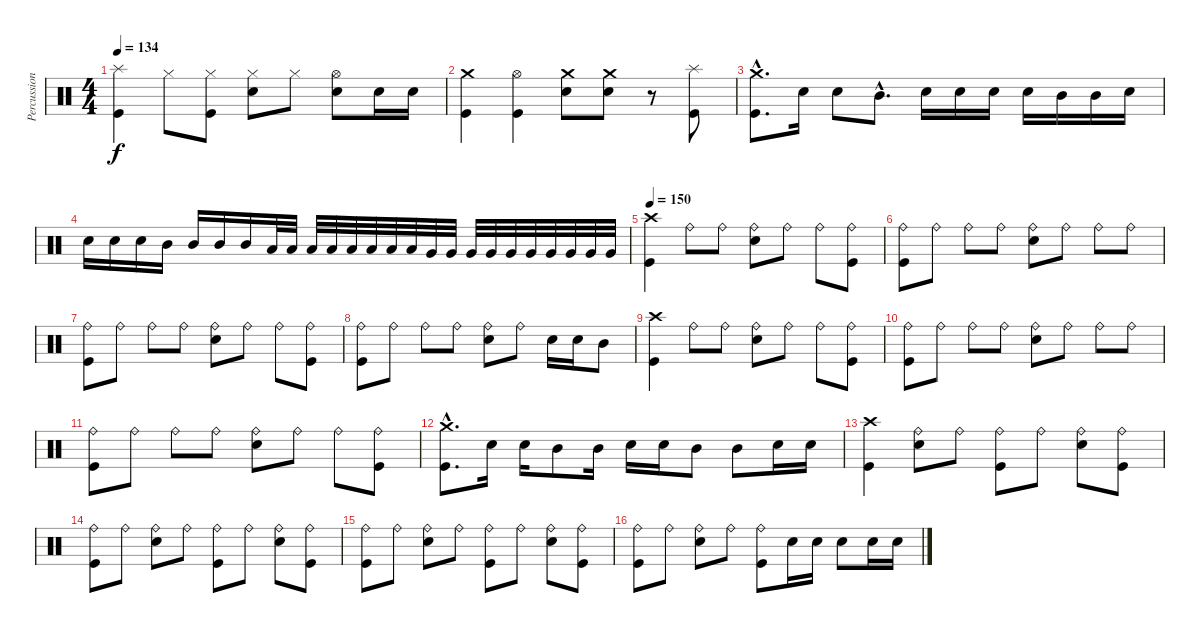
\track ("Percussions" "Percussion") {instrument percussion}
\staff {score}
\articulation defaults
\ts (4 4)
\tempo 134
\clef neutral
\ks c
("Kick (hit)" "Splash (hit)").4{dy f} "Hi-Hat (closed)".8 ("Kick (hit)" "Hi-Hat (closed)").8 ("Electric Snare (hit)" "Hi-Hat (closed)").8 "Hi-Hat (closed)".8 ("Electric Snare (hit)" "Hi-Hat (open)").8 "Electric Snare (hit)".16 "Electric Snare (hit)".16 |
("Kick (hit)" "Crash medium (hit)").4 ("Kick (hit)" "Hi-Hat (open)").4 ("Electric Snare (hit)" "Crash medium (hit)").8 ("Electric Snare (hit)" "Crash medium (hit)").8 r.8 ("Kick (hit)" "Splash (hit)").8 |
("Kick (hit)"{hac} "Crash medium (hit)"{hac}).8{d} "Electric Snare (hit)".16 "Electric Snare (hit)".8 "Mid Tom (hit)"{hac}.8{d} "Electric Snare (hit)".16 "Electric Snare (hit)".16 "Electric Snare (hit)".16 "Electric Snare (hit)".16 "Mid Tom (hit)".16 "Mid Tom (hit)".16 "Electric Snare (hit)".16 |
"Electric Snare (hit)".16 "Electric Snare (hit)".16 "Electric Snare (hit)".16 "Mid Tom (hit)".16 "Mid Tom (hit)".16 "Mid Tom (hit)".16 "Mid Tom (hit)".16 "Low Tom (hit)".32 "Low Tom (hit)".32 "Low Tom (hit)".32 "Low Tom (hit)".32 "Low Tom (hit)".32 "Low Tom (hit)".32 "Low Tom (hit)".32 "Low Tom (hit)".32 "Very Low Tom (hit)".32 "Very Low Tom (hit)".32 "Very Low Tom (hit)".32 "Very Low Tom (hit)".32 "Very Low Tom (hit)".32 "Very Low Tom (hit)".32 "Very Low Tom (hit)".32 "Very Low Tom (hit)".32 "Very Low Tom (hit)".32 "Very Low Tom (hit)".32 |
\tempo 150
("Kick (hit)" "Crash high (hit)").4 "Ride (bell)".8 "Ride (bell)".8 ("Electric Snare (hit)" "Ride (bell)").8 "Ride (bell)".8 "Ride (bell)".8 ("Kick (hit)" "Ride (bell)").8 |
("Kick (hit)" "Ride (bell)").8 "Ride (bell)".8 "Ride (bell)".8 "Ride (bell)".8 ("Electric Snare (hit)" "Ride (bell)").8 "Ride (bell)".8 "Ride (bell)".8 "Ride (bell)".8 |
("Kick (hit)" "Ride (bell)").8 "Ride (bell)".8 "Ride (bell)".8 "Ride (bell)".8 ("Electric Snare (hit)" "Ride (bell)").8 "Ride (bell)".8 "Ride (bell)".8 ("Kick (hit)" "Ride (bell)").8 |
("Kick (hit)" "Ride (bell)").8 "Ride (bell)".8 "Ride (bell)".8 "Ride (bell)".8 ("Electric Snare (hit)" "Ride (bell)").8 "Ride (bell)".8 "Electric Snare (hit)".16 "Electric Snare (hit)".16 "Mid Tom (hit)".8 |
("Kick (hit)" "Crash high (hit)").4 "Ride (bell)".8 "Ride (bell)".8 ("Electric Snare (hit)" "Ride (bell)").8 "Ride (bell)".8 "Ride (bell)".8 ("Kick (hit)" "Ride (bell)").8 |
("Kick (hit)" "Ride (bell)").8 "Ride (bell)".8 "Ride (bell)".8 "Ride (bell)".8 ("Electric Snare (hit)" "Ride (bell)").8 "Ride (bell)".8 "Ride (bell)".8 "Ride (bell)".8 |
("Kick (hit)" "Ride (bell)").8 "Ride (bell)".8 "Ride (bell)".8 "Ride (bell)".8 ("Electric Snare (hit)" "Ride (bell)").8 "Ride (bell)".8 "Ride (bell)".8 ("Kick (hit)" "Ride (bell)").8 |
("Kick (hit)"{hac} "Crash medium (hit)"{hac}).8{d} "Electric Snare (hit)".16 "Electric Snare (hit)".16 "Mid Tom (hit)".8 "Mid Tom (hit)".16 "Electric Snare (hit)".16 "Electric Snare (hit)".16 "Mid Tom (hit)".8 "Mid Tom (hit)".8 "Electric Snare (hit)".16 "Electric Snare (hit)".16 |
("Kick (hit)" "Crash high (hit)").4 ("Electric Snare (hit)" "Ride (bell)").8 "Ride (bell)".8 ("Kick (hit)" "Ride (bell)").8 "Ride (bell)".8 ("Electric Snare (hit)" "Ride (bell)").8 ("Kick (hit)" "Ride (bell)").8 |
("Kick (hit)" "Ride (bell)").8 "Ride (bell)".8 ("Electric Snare (hit)" "Ride (bell)").8 "Ride (bell)".8 ("Kick (hit)" "Ride (bell)").8 "Ride (bell)".8 ("Electric Snare (hit)" "Ride (bell)").8 ("Kick (hit)" "Ride (bell)").8 |
("Kick (hit)" "Ride (bell)").8 "Ride (bell)".8 ("Electric Snare (hit)" "Ride (bell)").8 "Ride (bell)".8 ("Kick (hit)" "Ride (bell)").8 "Ride (bell)".8 ("Electric Snare (hit)" "Ride (bell)").8 ("Kick (hit)" "Ride (bell)").8 |
("Kick (hit)" "Ride (bell)").8 "Ride (bell)".8 ("Electric Snare (hit)" "Ride (bell)").8 "Ride (bell)".8 ("Kick (hit)" "Ride (bell)").8 "Electric Snare (hit)".16 "Electric Snare (hit)".16 "Electric Snare (hit)".8 "Electric Snare (hit)".16 "Electric Snare (hit)".16
